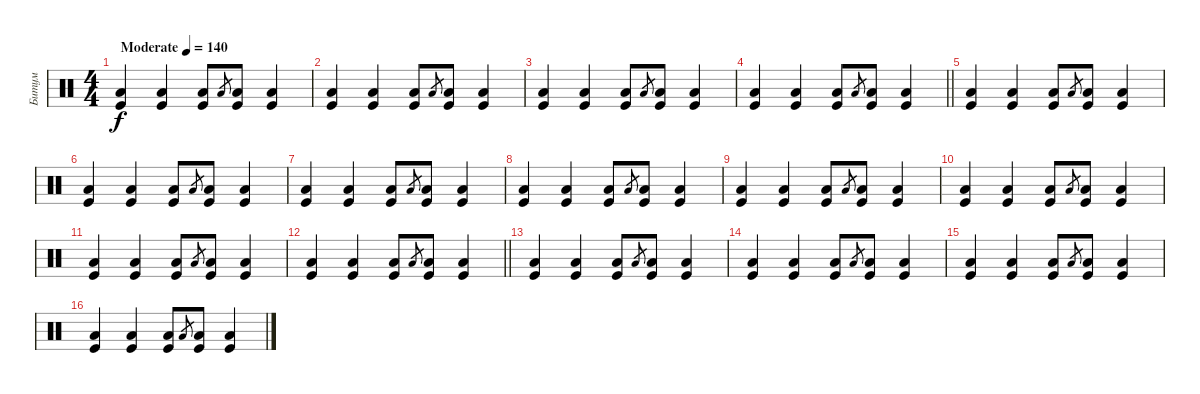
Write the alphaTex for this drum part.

\track ("Битум" "Битум") {instrument percussion}
\staff {score}
\articulation defaults
\ts (4 4)
\tempo (140 "Moderate")
\clef neutral
\ks c
("Low Floor Tom (hit)" "Kick (hit)").4{dy f} ("Low Floor Tom (hit)" "Kick (hit)").4 ("Low Floor Tom (hit)" "Kick (hit)").8 "Low Floor Tom (hit)".8{gr} ("Low Floor Tom (hit)" "Kick (hit)").8 ("Low Floor Tom (hit)" "Kick (hit)").4 |
("Low Floor Tom (hit)" "Kick (hit)").4 ("Low Floor Tom (hit)" "Kick (hit)").4 ("Low Floor Tom (hit)" "Kick (hit)").8 "Low Floor Tom (hit)".8{gr} ("Low Floor Tom (hit)" "Kick (hit)").8 ("Low Floor Tom (hit)" "Kick (hit)").4 |
("Low Floor Tom (hit)" "Kick (hit)").4 ("Low Floor Tom (hit)" "Kick (hit)").4 ("Low Floor Tom (hit)" "Kick (hit)").8 "Low Floor Tom (hit)".8{gr} ("Low Floor Tom (hit)" "Kick (hit)").8 ("Low Floor Tom (hit)" "Kick (hit)").4 |
\barLineRight lightlight
("Low Floor Tom (hit)" "Kick (hit)").4 ("Low Floor Tom (hit)" "Kick (hit)").4 ("Low Floor Tom (hit)" "Kick (hit)").8 "Low Floor Tom (hit)".8{gr} ("Low Floor Tom (hit)" "Kick (hit)").8 ("Low Floor Tom (hit)" "Kick (hit)").4 |
("Low Floor Tom (hit)" "Kick (hit)").4 ("Low Floor Tom (hit)" "Kick (hit)").4 ("Low Floor Tom (hit)" "Kick (hit)").8 "Low Floor Tom (hit)".8{gr} ("Low Floor Tom (hit)" "Kick (hit)").8 ("Low Floor Tom (hit)" "Kick (hit)").4 |
("Low Floor Tom (hit)" "Kick (hit)").4 ("Low Floor Tom (hit)" "Kick (hit)").4 ("Low Floor Tom (hit)" "Kick (hit)").8 "Low Floor Tom (hit)".8{gr} ("Low Floor Tom (hit)" "Kick (hit)").8 ("Low Floor Tom (hit)" "Kick (hit)").4 |
("Low Floor Tom (hit)" "Kick (hit)").4 ("Low Floor Tom (hit)" "Kick (hit)").4 ("Low Floor Tom (hit)" "Kick (hit)").8 "Low Floor Tom (hit)".8{gr} ("Low Floor Tom (hit)" "Kick (hit)").8 ("Low Floor Tom (hit)" "Kick (hit)").4 |
("Low Floor Tom (hit)" "Kick (hit)").4 ("Low Floor Tom (hit)" "Kick (hit)").4 ("Low Floor Tom (hit)" "Kick (hit)").8 "Low Floor Tom (hit)".8{gr} ("Low Floor Tom (hit)" "Kick (hit)").8 ("Low Floor Tom (hit)" "Kick (hit)").4 |
("Low Floor Tom (hit)" "Kick (hit)").4 ("Low Floor Tom (hit)" "Kick (hit)").4 ("Low Floor Tom (hit)" "Kick (hit)").8 "Low Floor Tom (hit)".8{gr} ("Low Floor Tom (hit)" "Kick (hit)").8 ("Low Floor Tom (hit)" "Kick (hit)").4 |
("Low Floor Tom (hit)" "Kick (hit)").4 ("Low Floor Tom (hit)" "Kick (hit)").4 ("Low Floor Tom (hit)" "Kick (hit)").8 "Low Floor Tom (hit)".8{gr} ("Low Floor Tom (hit)" "Kick (hit)").8 ("Low Floor Tom (hit)" "Kick (hit)").4 |
("Low Floor Tom (hit)" "Kick (hit)").4 ("Low Floor Tom (hit)" "Kick (hit)").4 ("Low Floor Tom (hit)" "Kick (hit)").8 "Low Floor Tom (hit)".8{gr} ("Low Floor Tom (hit)" "Kick (hit)").8 ("Low Floor Tom (hit)" "Kick (hit)").4 |
\barLineRight lightlight
("Low Floor Tom (hit)" "Kick (hit)").4 ("Low Floor Tom (hit)" "Kick (hit)").4 ("Low Floor Tom (hit)" "Kick (hit)").8 "Low Floor Tom (hit)".8{gr} ("Low Floor Tom (hit)" "Kick (hit)").8 ("Low Floor Tom (hit)" "Kick (hit)").4 |
("Low Floor Tom (hit)" "Kick (hit)").4 ("Low Floor Tom (hit)" "Kick (hit)").4 ("Low Floor Tom (hit)" "Kick (hit)").8 "Low Floor Tom (hit)".8{gr} ("Low Floor Tom (hit)" "Kick (hit)").8 ("Low Floor Tom (hit)" "Kick (hit)").4 |
("Low Floor Tom (hit)" "Kick (hit)").4 ("Low Floor Tom (hit)" "Kick (hit)").4 ("Low Floor Tom (hit)" "Kick (hit)").8 "Low Floor Tom (hit)".8{gr} ("Low Floor Tom (hit)" "Kick (hit)").8 ("Low Floor Tom (hit)" "Kick (hit)").4 |
("Low Floor Tom (hit)" "Kick (hit)").4 ("Low Floor Tom (hit)" "Kick (hit)").4 ("Low Floor Tom (hit)" "Kick (hit)").8 "Low Floor Tom (hit)".8{gr} ("Low Floor Tom (hit)" "Kick (hit)").8 ("Low Floor Tom (hit)" "Kick (hit)").4 |
("Low Floor Tom (hit)" "Kick (hit)").4 ("Low Floor Tom (hit)" "Kick (hit)").4 ("Low Floor Tom (hit)" "Kick (hit)").8 "Low Floor Tom (hit)".8{gr} ("Low Floor Tom (hit)" "Kick (hit)").8 ("Low Floor Tom (hit)" "Kick (hit)").4
